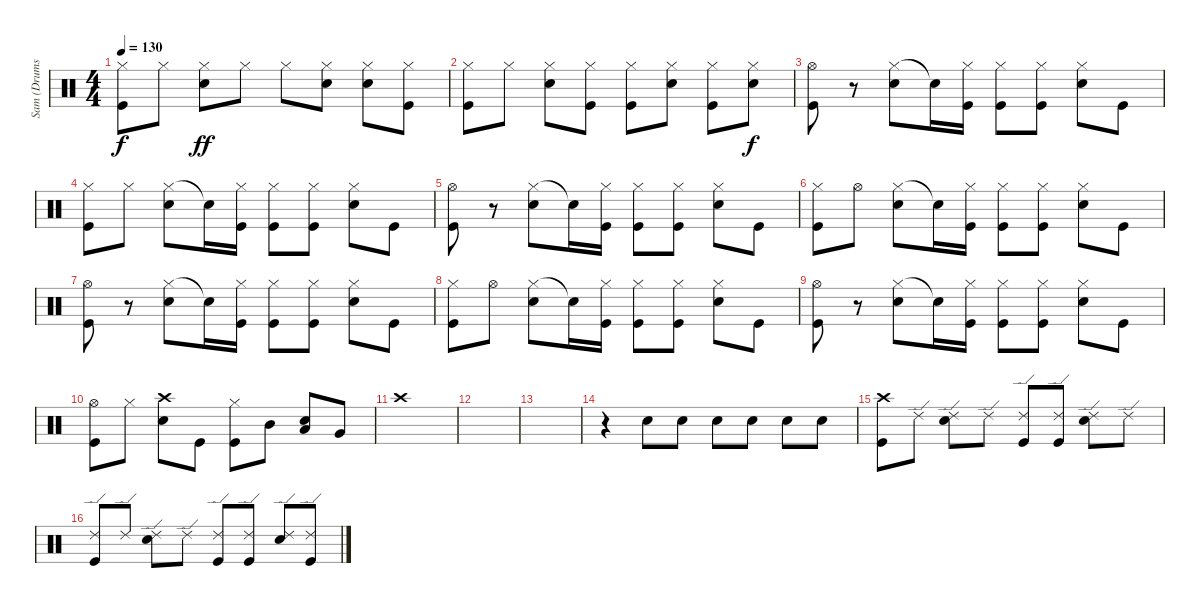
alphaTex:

\track ("Sam (Drums)" "Sam (Drums") {instrument percussion}
\staff {score}
\articulation defaults
\ts (4 4)
\tempo 130
\clef neutral
\ks c
("Hi-Hat (closed)" "Kick (hit)").8{dy f} "Hi-Hat (closed)".8 ("Hi-Hat (closed)" "Snare (hit) 2").8{dy ff} "Hi-Hat (closed)".8 "Hi-Hat (closed)".8 ("Hi-Hat (closed)" "Snare (hit) 2").8 ("Hi-Hat (closed)" "Snare (hit) 2").8 ("Hi-Hat (closed)" "Kick (hit)").8 |
("Hi-Hat (closed)" "Kick (hit)").8 "Hi-Hat (closed)".8 ("Hi-Hat (closed)" "Snare (hit) 2").8 ("Hi-Hat (closed)" "Kick (hit)").8 ("Hi-Hat (closed)" "Kick (hit)").8 ("Hi-Hat (closed)" "Snare (hit) 2").8 ("Hi-Hat (closed)" "Kick (hit)").8 ("Hi-Hat (closed)" "Snare (hit) 2").8{dy f} |
("Hi-Hat (open)" "Kick (hit)").8 r.8 ("Hi-Hat (closed)" "Snare (hit) 2").8 "Snare (hit)"{t}.16 ("Hi-Hat (closed)" "Kick (hit)").16 ("Hi-Hat (closed)" "Kick (hit)").8 ("Hi-Hat (closed)" "Kick (hit)").8 ("Hi-Hat (closed)" "Snare (hit) 2").8 "Kick (hit)".8 |
("Hi-Hat (closed)" "Kick (hit)").8 "Hi-Hat (closed)".8 ("Hi-Hat (closed)" "Snare (hit) 2").8 "Snare (hit)"{t}.16 ("Hi-Hat (closed)" "Kick (hit)").16 ("Hi-Hat (closed)" "Kick (hit)").8 ("Hi-Hat (closed)" "Kick (hit)").8 ("Hi-Hat (closed)" "Snare (hit) 2").8 "Kick (hit)".8 |
("Hi-Hat (open)" "Kick (hit)").8 r.8 ("Hi-Hat (closed)" "Snare (hit) 2").8 "Snare (hit)"{t}.16 ("Hi-Hat (closed)" "Kick (hit)").16 ("Hi-Hat (closed)" "Kick (hit)").8 ("Hi-Hat (closed)" "Kick (hit)").8 ("Hi-Hat (closed)" "Snare (hit) 2").8 "Kick (hit)".8 |
("Hi-Hat (closed)" "Kick (hit)").8 "Hi-Hat (open)".8 ("Hi-Hat (closed)" "Snare (hit) 2").8 "Snare (hit)"{t}.16 ("Hi-Hat (closed)" "Kick (hit)").16 ("Hi-Hat (closed)" "Kick (hit)").8 ("Hi-Hat (closed)" "Kick (hit)").8 ("Hi-Hat (closed)" "Snare (hit) 2").8 "Kick (hit)".8 |
("Hi-Hat (open)" "Kick (hit)").8 r.8 ("Hi-Hat (closed)" "Snare (hit) 2").8 "Snare (hit)"{t}.16 ("Hi-Hat (closed)" "Kick (hit)").16 ("Hi-Hat (closed)" "Kick (hit)").8 ("Hi-Hat (closed)" "Kick (hit)").8 ("Hi-Hat (closed)" "Snare (hit) 2").8 "Kick (hit)".8 |
("Hi-Hat (closed)" "Kick (hit)").8 "Hi-Hat (open)".8 ("Hi-Hat (closed)" "Snare (hit) 2").8 "Snare (hit)"{t}.16 ("Hi-Hat (closed)" "Kick (hit)").16 ("Hi-Hat (closed)" "Kick (hit)").8 ("Hi-Hat (closed)" "Kick (hit)").8 ("Hi-Hat (closed)" "Snare (hit) 2").8 "Kick (hit)".8 |
("Hi-Hat (open)" "Kick (hit)").8 r.8 ("Hi-Hat (closed)" "Snare (hit) 2").8 "Snare (hit)"{t}.16 ("Hi-Hat (closed)" "Kick (hit)").16 ("Hi-Hat (closed)" "Kick (hit)").8 ("Hi-Hat (closed)" "Kick (hit)").8 ("Hi-Hat (closed)" "Snare (hit) 2").8 "Kick (hit)".8 |
("Hi-Hat (open)" "Kick (hit)").8 "Hi-Hat (closed)".8 ("Crash high (hit)" "Snare (hit) 2").8 "Kick (hit)".8 ("Hi-Hat (closed)" "Kick (hit)").8 "Mid Tom (hit)".8 ("Low Tom (hit)" "Snare (hit) 2").8 "Very Low Tom (hit)".8 |
"Crash high (hit)".1 |
|
|
r.4 "Snare (hit) 2".8 "Snare (hit) 2".8 "Snare (hit) 2".8 "Snare (hit) 2".8 "Snare (hit) 2".8 "Snare (hit) 2".8 |
("Crash high (hit)" "Kick (hit)").8 "Ride (edge) 2".8 ("Ride (edge) 2" "Snare (hit) 2").8 "Ride (edge) 2".8 ("Ride (edge) 2" "Kick (hit)").8 ("Ride (edge) 2" "Kick (hit)").8 ("Ride (edge) 2" "Snare (hit) 2").8 "Ride (edge) 2".8 |
("Ride (edge) 2" "Kick (hit)").8 "Ride (edge) 2".8 ("Ride (edge) 2" "Snare (hit) 2").8 "Ride (edge) 2".8 ("Ride (edge) 2" "Kick (hit)").8 ("Ride (edge) 2" "Kick (hit)").8 ("Ride (edge) 2" "Snare (hit) 2").8 ("Ride (edge) 2" "Kick (hit)").8
